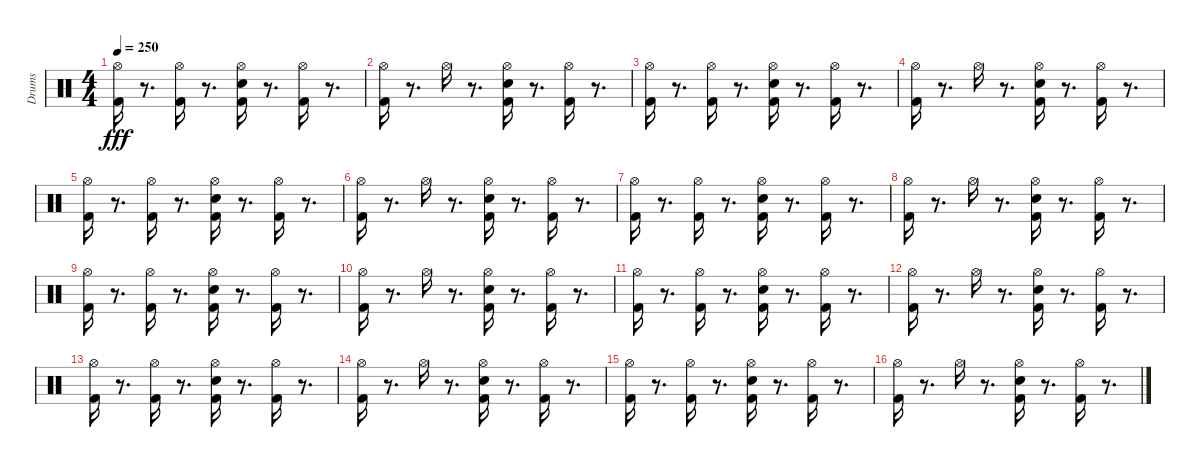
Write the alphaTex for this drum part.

\track ("Drums" "Drums") {instrument percussion}
\staff {score}
\articulation defaults
\ts (4 4)
\tempo 250
\clef neutral
\ks c
("Hi-Hat (open)" "Kick (hit) 2").16{dy fff} r.8{d} ("Kick (hit) 2" "Hi-Hat (open)").16 r.8{d} ("Kick (hit) 2" "Electric Snare (hit)" "Hi-Hat (open)").16 r.8{d} ("Kick (hit) 2" "Hi-Hat (open)").16 r.8{d} |
("Kick (hit) 2" "Hi-Hat (open)").16 r.8{d} "Hi-Hat (open)".16 r.8{d} ("Kick (hit) 2" "Electric Snare (hit)" "Hi-Hat (open)").16 r.8{d} ("Kick (hit) 2" "Hi-Hat (open)").16 r.8{d} |
("Hi-Hat (open)" "Kick (hit) 2").16 r.8{d} ("Kick (hit) 2" "Hi-Hat (open)").16 r.8{d} ("Kick (hit) 2" "Electric Snare (hit)" "Hi-Hat (open)").16 r.8{d} ("Kick (hit) 2" "Hi-Hat (open)").16 r.8{d} |
("Kick (hit) 2" "Hi-Hat (open)").16 r.8{d} "Hi-Hat (open)".16 r.8{d} ("Kick (hit) 2" "Electric Snare (hit)" "Hi-Hat (open)").16 r.8{d} ("Kick (hit) 2" "Hi-Hat (open)").16 r.8{d} |
("Hi-Hat (open)" "Kick (hit) 2").16 r.8{d} ("Kick (hit) 2" "Hi-Hat (open)").16 r.8{d} ("Kick (hit) 2" "Electric Snare (hit)" "Hi-Hat (open)").16 r.8{d} ("Kick (hit) 2" "Hi-Hat (open)").16 r.8{d} |
("Kick (hit) 2" "Hi-Hat (open)").16 r.8{d} "Hi-Hat (open)".16 r.8{d} ("Kick (hit) 2" "Electric Snare (hit)" "Hi-Hat (open)").16 r.8{d} ("Kick (hit) 2" "Hi-Hat (open)").16 r.8{d} |
("Hi-Hat (open)" "Kick (hit) 2").16 r.8{d} ("Kick (hit) 2" "Hi-Hat (open)").16 r.8{d} ("Kick (hit) 2" "Electric Snare (hit)" "Hi-Hat (open)").16 r.8{d} ("Kick (hit) 2" "Hi-Hat (open)").16 r.8{d} |
("Kick (hit) 2" "Hi-Hat (open)").16 r.8{d} "Hi-Hat (open)".16 r.8{d} ("Kick (hit) 2" "Electric Snare (hit)" "Hi-Hat (open)").16 r.8{d} ("Kick (hit) 2" "Hi-Hat (open)").16 r.8{d} |
("Hi-Hat (open)" "Kick (hit) 2").16 r.8{d} ("Kick (hit) 2" "Hi-Hat (open)").16 r.8{d} ("Kick (hit) 2" "Electric Snare (hit)" "Hi-Hat (open)").16 r.8{d} ("Kick (hit) 2" "Hi-Hat (open)").16 r.8{d} |
("Kick (hit) 2" "Hi-Hat (open)").16 r.8{d} "Hi-Hat (open)".16 r.8{d} ("Kick (hit) 2" "Electric Snare (hit)" "Hi-Hat (open)").16 r.8{d} ("Kick (hit) 2" "Hi-Hat (open)").16 r.8{d} |
("Hi-Hat (open)" "Kick (hit) 2").16 r.8{d} ("Kick (hit) 2" "Hi-Hat (open)").16 r.8{d} ("Kick (hit) 2" "Electric Snare (hit)" "Hi-Hat (open)").16 r.8{d} ("Kick (hit) 2" "Hi-Hat (open)").16 r.8{d} |
("Kick (hit) 2" "Hi-Hat (open)").16 r.8{d} "Hi-Hat (open)".16 r.8{d} ("Kick (hit) 2" "Electric Snare (hit)" "Hi-Hat (open)").16 r.8{d} ("Kick (hit) 2" "Hi-Hat (open)").16 r.8{d} |
("Hi-Hat (open)" "Kick (hit) 2").16 r.8{d} ("Kick (hit) 2" "Hi-Hat (open)").16 r.8{d} ("Kick (hit) 2" "Electric Snare (hit)" "Hi-Hat (open)").16 r.8{d} ("Kick (hit) 2" "Hi-Hat (open)").16 r.8{d} |
("Kick (hit) 2" "Hi-Hat (open)").16 r.8{d} "Hi-Hat (open)".16 r.8{d} ("Kick (hit) 2" "Electric Snare (hit)" "Hi-Hat (open)").16 r.8{d} ("Kick (hit) 2" "Hi-Hat (open)").16 r.8{d} |
("Hi-Hat (open)" "Kick (hit) 2").16 r.8{d} ("Kick (hit) 2" "Hi-Hat (open)").16 r.8{d} ("Kick (hit) 2" "Electric Snare (hit)" "Hi-Hat (open)").16 r.8{d} ("Kick (hit) 2" "Hi-Hat (open)").16 r.8{d} |
("Kick (hit) 2" "Hi-Hat (open)").16 r.8{d} "Hi-Hat (open)".16 r.8{d} ("Kick (hit) 2" "Electric Snare (hit)" "Hi-Hat (open)").16 r.8{d} ("Kick (hit) 2" "Hi-Hat (open)").16 r.8{d}
